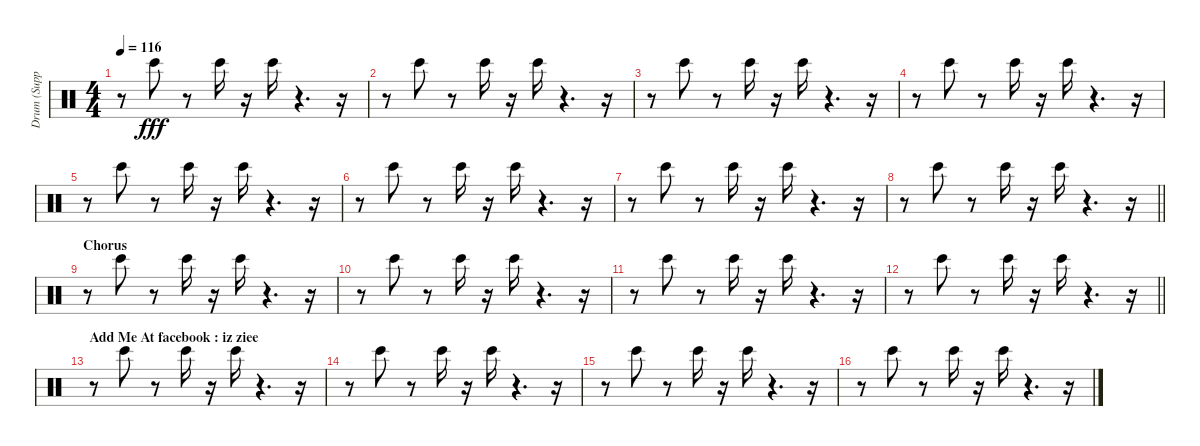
\track ("Drum (Support)" "Drum (Supp") {instrument percussion}
\staff {score}
\articulation defaults
\ts (4 4)
\tempo 116
\clef neutral
\ks c
r.8{dy fff} "Bongo High (hit)".8 r.8 "Bongo High (hit)".16 r.16 "Bongo High (hit)".16 r.4{d} r.16 |
r.8 "Bongo High (hit)".8 r.8 "Bongo High (hit)".16 r.16 "Bongo High (hit)".16 r.4{d} r.16 |
r.8 "Bongo High (hit)".8 r.8 "Bongo High (hit)".16 r.16 "Bongo High (hit)".16 r.4{d} r.16 |
r.8 "Bongo High (hit)".8 r.8 "Bongo High (hit)".16 r.16 "Bongo High (hit)".16 r.4{d} r.16 |
r.8 "Bongo High (hit)".8 r.8 "Bongo High (hit)".16 r.16 "Bongo High (hit)".16 r.4{d} r.16 |
r.8 "Bongo High (hit)".8 r.8 "Bongo High (hit)".16 r.16 "Bongo High (hit)".16 r.4{d} r.16 |
r.8 "Bongo High (hit)".8 r.8 "Bongo High (hit)".16 r.16 "Bongo High (hit)".16 r.4{d} r.16 |
\barLineRight lightlight
r.8 "Bongo High (hit)".8 r.8 "Bongo High (hit)".16 r.16 "Bongo High (hit)".16 r.4{d} r.16 |
\section ("" "Chorus")
r.8 "Bongo High (hit)".8 r.8 "Bongo High (hit)".16 r.16 "Bongo High (hit)".16 r.4{d} r.16 |
r.8 "Bongo High (hit)".8 r.8 "Bongo High (hit)".16 r.16 "Bongo High (hit)".16 r.4{d} r.16 |
r.8 "Bongo High (hit)".8 r.8 "Bongo High (hit)".16 r.16 "Bongo High (hit)".16 r.4{d} r.16 |
\barLineRight lightlight
r.8 "Bongo High (hit)".8 r.8 "Bongo High (hit)".16 r.16 "Bongo High (hit)".16 r.4{d} r.16 |
\section ("" "Add Me At facebook : iz ziee")
r.8 "Bongo High (hit)".8 r.8 "Bongo High (hit)".16 r.16 "Bongo High (hit)".16 r.4{d} r.16 |
r.8 "Bongo High (hit)".8 r.8 "Bongo High (hit)".16 r.16 "Bongo High (hit)".16 r.4{d} r.16 |
r.8 "Bongo High (hit)".8 r.8 "Bongo High (hit)".16 r.16 "Bongo High (hit)".16 r.4{d} r.16 |
r.8 "Bongo High (hit)".8 r.8 "Bongo High (hit)".16 r.16 "Bongo High (hit)".16 r.4{d} r.16
